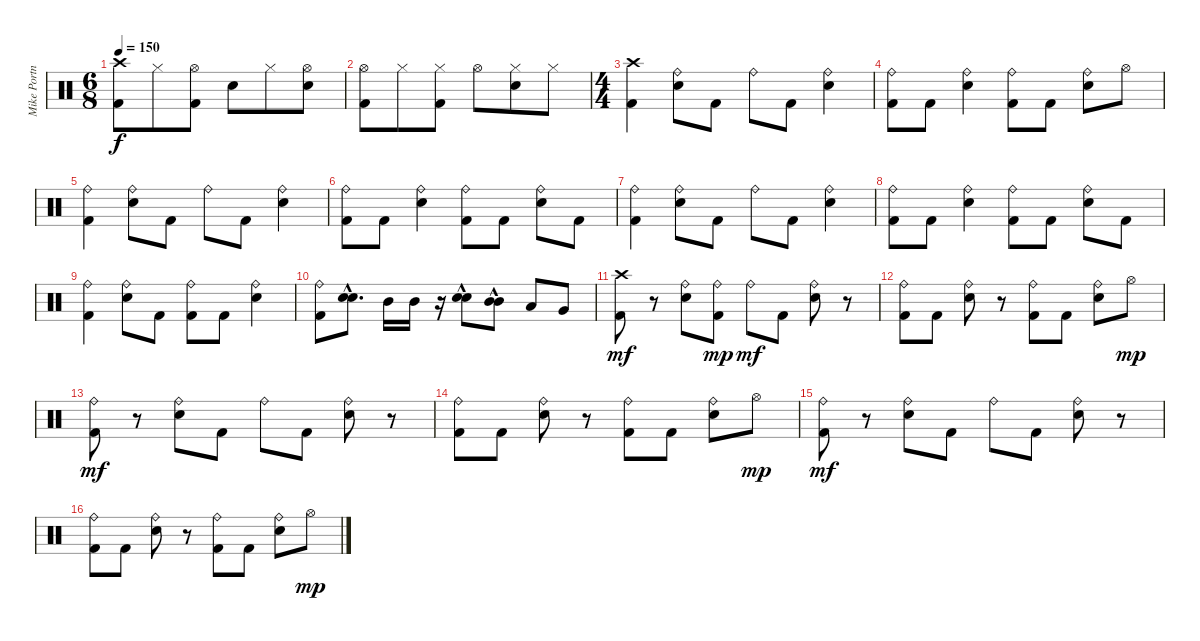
\track ("Mike Portnoy: Drums" "Mike Portn") {instrument percussion}
\staff {score}
\articulation defaults
\ts (6 8)
\tempo 150
\clef neutral
\ks c
("Kick (hit) 2" "Crash high (hit)").8{dy f} "Hi-Hat (closed)".8 ("Kick (hit) 2" "Hi-Hat (open)").8 "Electric Snare (hit)".8 "Hi-Hat (closed)".8 ("Electric Snare (hit)" "Hi-Hat (open)").8 |
("Kick (hit) 2" "Hi-Hat (open)").8 "Hi-Hat (closed)".8 ("Kick (hit) 2" "Hi-Hat (closed)").8 "Hi-Hat (open)".8 ("Electric Snare (hit)" "Hi-Hat (closed)").8 "Hi-Hat (closed)".8 |
\ts (4 4)
("Kick (hit) 2" "Crash high (hit)").4 ("Electric Snare (hit)" "Ride (bell)").8 "Kick (hit) 2".8 "Ride (bell)".8 "Kick (hit) 2".8 ("Electric Snare (hit)" "Ride (bell)").4 |
("Kick (hit) 2" "Ride (bell)").8 "Kick (hit) 2".8 ("Electric Snare (hit)" "Ride (bell)").4 ("Kick (hit) 2" "Ride (bell)").8 "Kick (hit) 2".8 ("Electric Snare (hit)" "Ride (bell)").8 "Hi-Hat (open)".8 |
("Kick (hit) 2" "Ride (bell)").4 ("Electric Snare (hit)" "Ride (bell)").8 "Kick (hit) 2".8 "Ride (bell)".8 "Kick (hit) 2".8 ("Electric Snare (hit)" "Ride (bell)").4 |
("Kick (hit) 2" "Ride (bell)").8 "Kick (hit) 2".8 ("Electric Snare (hit)" "Ride (bell)").4 ("Kick (hit) 2" "Ride (bell)").8 "Kick (hit) 2".8 ("Electric Snare (hit)" "Ride (bell)").8 "Kick (hit) 2".8 |
("Kick (hit) 2" "Ride (bell)").4 ("Electric Snare (hit)" "Ride (bell)").8 "Kick (hit) 2".8 "Ride (bell)".8 "Kick (hit) 2".8 ("Electric Snare (hit)" "Ride (bell)").4 |
("Kick (hit) 2" "Ride (bell)").8 "Kick (hit) 2".8 ("Electric Snare (hit)" "Ride (bell)").4 ("Kick (hit) 2" "Ride (bell)").8 "Kick (hit) 2".8 ("Electric Snare (hit)" "Ride (bell)").8 "Kick (hit) 2".8 |
("Kick (hit) 2" "Ride (bell)").4 ("Electric Snare (hit)" "Ride (bell)").8 "Kick (hit) 2".8 ("Kick (hit) 2" "Ride (bell)").8 "Kick (hit) 2".8 ("Electric Snare (hit)" "Ride (bell)").4 |
("Kick (hit) 2" "Ride (bell)").8 ("Electric Snare (hit)"{hac} "Electric Snare (hit)"{hac}).8{d} "Mid Tom (hit)".16 "Mid Tom (hit)".16 r.16 ("Electric Snare (hit)" "Electric Snare (hit)"{hac}).8 ("Mid Tom (hit)" "Mid Tom (hit)"{hac}).8 "Low Tom (hit)".8 "Very Low Tom (hit)".8 |
("Kick (hit) 2" "Crash high (hit)").8{dy mf} r.8 ("Electric Snare (hit)" "Ride (bell)").8 ("Kick (hit) 2" "Ride (bell)").8{dy mp} "Ride (bell)".8{dy mf} "Kick (hit) 2".8 ("Electric Snare (hit)" "Ride (bell)").8 r.8 |
("Kick (hit) 2" "Ride (bell)").8 "Kick (hit) 2".8 ("Electric Snare (hit)" "Ride (bell)").8 r.8 ("Kick (hit) 2" "Ride (bell)").8 "Kick (hit) 2".8 ("Electric Snare (hit)" "Ride (bell)").8 "Hi-Hat (open)".8{dy mp} |
("Kick (hit) 2" "Ride (bell)").8{dy mf} r.8 ("Electric Snare (hit)" "Ride (bell)").8 "Kick (hit) 2".8 "Ride (bell)".8 "Kick (hit) 2".8 ("Electric Snare (hit)" "Ride (bell)").8 r.8 |
("Kick (hit) 2" "Ride (bell)").8 "Kick (hit) 2".8 ("Electric Snare (hit)" "Ride (bell)").8 r.8 ("Kick (hit) 2" "Ride (bell)").8 "Kick (hit) 2".8 ("Electric Snare (hit)" "Ride (bell)").8 "Hi-Hat (open)".8{dy mp} |
("Kick (hit) 2" "Ride (bell)").8{dy mf} r.8 ("Electric Snare (hit)" "Ride (bell)").8 "Kick (hit) 2".8 "Ride (bell)".8 "Kick (hit) 2".8 ("Electric Snare (hit)" "Ride (bell)").8 r.8 |
("Kick (hit) 2" "Ride (bell)").8 "Kick (hit) 2".8 ("Electric Snare (hit)" "Ride (bell)").8 r.8 ("Kick (hit) 2" "Ride (bell)").8 "Kick (hit) 2".8 ("Electric Snare (hit)" "Ride (bell)").8 "Hi-Hat (open)".8{dy mp}
